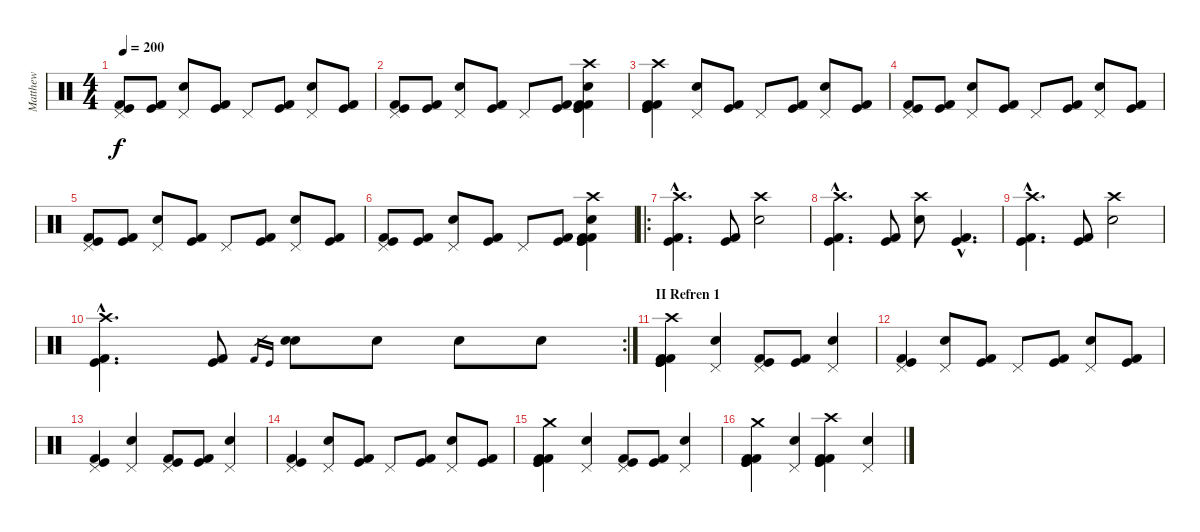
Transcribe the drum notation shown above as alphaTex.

\track ("Matthew" "Matthew") {instrument percussion}
\staff {score}
\articulation defaults
\ts (4 4)
\tempo 200
\clef neutral
\ks c
("Kick (hit) 2" "Kick (hit)" "Pedal Hi-Hat (hit)").8{dy f} ("Kick (hit) 2" "Kick (hit)").8 ("Snare (hit) 2" "Pedal Hi-Hat (hit)").8 ("Kick (hit) 2" "Kick (hit)").8 "Pedal Hi-Hat (hit)".8 ("Kick (hit) 2" "Kick (hit)").8 ("Pedal Hi-Hat (hit)" "Snare (hit) 2").8 ("Kick (hit) 2" "Kick (hit)").8 |
("Kick (hit) 2" "Kick (hit)" "Pedal Hi-Hat (hit)").8 ("Kick (hit) 2" "Kick (hit)").8 ("Snare (hit) 2" "Pedal Hi-Hat (hit)").8 ("Kick (hit) 2" "Kick (hit)").8 "Pedal Hi-Hat (hit)".8 ("Kick (hit) 2" "Kick (hit)").8 ("Kick (hit)" "Snare (hit) 2" "Crash high (hit)" "Kick (hit) 2" "Kick (hit)" "Kick (hit) 2").4 |
("Kick (hit) 2" "Kick (hit)" "Kick (hit)" "Kick (hit) 2" "Crash high (hit)").4 ("Pedal Hi-Hat (hit)" "Snare (hit) 2").8 ("Kick (hit)" "Kick (hit) 2").8 "Pedal Hi-Hat (hit)".8 ("Kick (hit)" "Kick (hit) 2").8 ("Snare (hit) 2" "Pedal Hi-Hat (hit)").8 ("Kick (hit)" "Kick (hit) 2").8 |
("Kick (hit) 2" "Kick (hit)" "Pedal Hi-Hat (hit)").8 ("Kick (hit) 2" "Kick (hit)").8 ("Snare (hit) 2" "Pedal Hi-Hat (hit)").8 ("Kick (hit) 2" "Kick (hit)").8 "Pedal Hi-Hat (hit)".8 ("Kick (hit) 2" "Kick (hit)").8 ("Pedal Hi-Hat (hit)" "Snare (hit) 2").8 ("Kick (hit) 2" "Kick (hit)").8 |
("Kick (hit) 2" "Kick (hit)" "Pedal Hi-Hat (hit)").8 ("Kick (hit) 2" "Kick (hit)").8 ("Snare (hit) 2" "Pedal Hi-Hat (hit)").8 ("Kick (hit) 2" "Kick (hit)").8 "Pedal Hi-Hat (hit)".8 ("Kick (hit) 2" "Kick (hit)").8 ("Pedal Hi-Hat (hit)" "Snare (hit) 2").8 ("Kick (hit) 2" "Kick (hit)").8 |
("Kick (hit) 2" "Kick (hit)" "Pedal Hi-Hat (hit)").8 ("Kick (hit) 2" "Kick (hit)").8 ("Snare (hit) 2" "Pedal Hi-Hat (hit)").8 ("Kick (hit) 2" "Kick (hit)").8 "Pedal Hi-Hat (hit)".8 ("Kick (hit) 2" "Kick (hit)").8 ("Kick (hit)" "Snare (hit) 2" "Crash high (hit)" "Kick (hit) 2" "Kick (hit)" "Kick (hit) 2").4 |
\ro
("Kick (hit) 2"{hac} "Kick (hit)"{hac} "Crash high (hit)"{hac}).4{d} ("Kick (hit) 2" "Kick (hit)").8 ("Snare (hit) 2" "Crash high (hit)").2 |
("Kick (hit) 2"{hac} "Kick (hit)"{hac} "Crash high (hit)"{hac}).4{d} ("Kick (hit) 2" "Kick (hit)").8 ("Snare (hit) 2" "Crash high (hit)").8 ("Kick (hit) 2"{hac} "Kick (hit)"{hac}).4{d} |
("Kick (hit) 2"{hac} "Kick (hit)"{hac} "Crash high (hit)"{hac}).4{d} ("Kick (hit) 2" "Kick (hit)").8 ("Snare (hit) 2" "Crash high (hit)").2 |
\rc 2
("Kick (hit) 2"{hac} "Kick (hit)"{hac} "Crash high (hit)"{hac}).4{d} ("Kick (hit) 2" "Kick (hit)").8 "Kick (hit) 2".16{gr} "Kick (hit)".16{gr} ("Snare (hit) 2" "Snare (hit)").8 "Snare (hit) 2".8 "Snare (hit) 2".8 "Snare (hit) 2".8 |
\section ("" "II Refren 1")
("Kick (hit)" "Kick (hit) 2" "Kick (hit)" "Kick (hit) 2" "Crash high (hit)").4 ("Snare (hit) 2" "Pedal Hi-Hat (hit)").4 ("Kick (hit) 2" "Pedal Hi-Hat (hit)" "Kick (hit)").8 ("Kick (hit)" "Kick (hit) 2").8 ("Snare (hit) 2" "Pedal Hi-Hat (hit)").4 |
("Kick (hit) 2" "Kick (hit)" "Pedal Hi-Hat (hit)").4 ("Snare (hit) 2" "Pedal Hi-Hat (hit)").8 ("Kick (hit) 2" "Kick (hit)").8 "Pedal Hi-Hat (hit)".8 ("Kick (hit) 2" "Kick (hit)").8 ("Snare (hit) 2" "Pedal Hi-Hat (hit)").8 ("Kick (hit)" "Kick (hit) 2").8 |
("Kick (hit)" "Kick (hit) 2" "Pedal Hi-Hat (hit)").4 ("Snare (hit) 2" "Pedal Hi-Hat (hit)").4 ("Kick (hit) 2" "Pedal Hi-Hat (hit)" "Kick (hit)").8 ("Kick (hit)" "Kick (hit) 2").8 ("Snare (hit) 2" "Pedal Hi-Hat (hit)").4 |
("Kick (hit) 2" "Kick (hit)" "Pedal Hi-Hat (hit)").4 ("Snare (hit) 2" "Pedal Hi-Hat (hit)").8 ("Kick (hit) 2" "Kick (hit)").8 "Pedal Hi-Hat (hit)".8 ("Kick (hit) 2" "Kick (hit)").8 ("Snare (hit) 2" "Pedal Hi-Hat (hit)").8 ("Kick (hit)" "Kick (hit) 2").8 |
("Kick (hit)" "Kick (hit) 2" "Kick (hit)" "Kick (hit) 2" "Crash medium (hit)").4 ("Snare (hit) 2" "Pedal Hi-Hat (hit)").4 ("Kick (hit) 2" "Pedal Hi-Hat (hit)" "Kick (hit)").8 ("Kick (hit)" "Kick (hit) 2").8 ("Snare (hit) 2" "Pedal Hi-Hat (hit)").4 |
("Kick (hit)" "Kick (hit) 2" "Kick (hit)" "Kick (hit) 2" "Crash medium (hit)").4 ("Snare (hit) 2" "Pedal Hi-Hat (hit)").4 ("Kick (hit) 2" "Crash high (hit)" "Kick (hit)" "Kick (hit) 2" "Kick (hit)").4 ("Snare (hit) 2" "Pedal Hi-Hat (hit)").4
